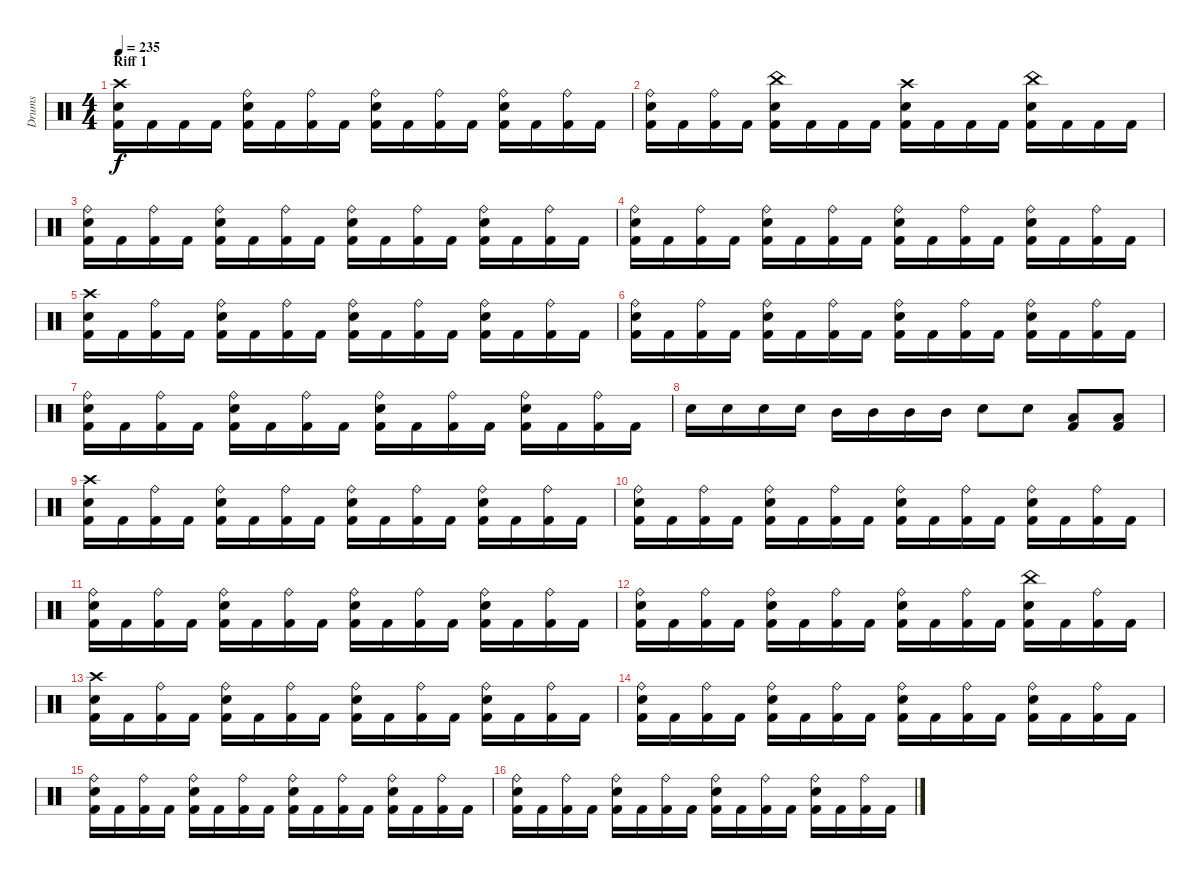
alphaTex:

\track ("Drums" "Drums") {instrument percussion}
\staff {score}
\articulation defaults
\ts (4 4)
\section ("" "Riff 1")
\tempo 235
\clef neutral
\ks c
("Kick (hit) 2" "Snare (hit) 2" "Crash high (hit)").16{dy f} "Kick (hit) 2".16 "Kick (hit) 2".16 "Kick (hit) 2".16 ("Kick (hit) 2" "Snare (hit) 2" "Ride (bell)").16 "Kick (hit) 2".16 ("Kick (hit) 2" "Ride (bell)").16 "Kick (hit) 2".16 ("Kick (hit) 2" "Snare (hit) 2" "Ride (bell)").16 "Kick (hit) 2".16 ("Kick (hit) 2" "Ride (bell)").16 "Kick (hit) 2".16 ("Kick (hit) 2" "Snare (hit) 2" "Ride (bell)").16 "Kick (hit) 2".16 ("Kick (hit) 2" "Ride (bell)").16 "Kick (hit) 2".16 |
("Kick (hit) 2" "Snare (hit) 2" "Ride (bell)").16 "Kick (hit) 2".16 ("Kick (hit) 2" "Ride (bell)").16 "Kick (hit) 2".16 ("Kick (hit) 2" "Snare (hit) 2" "China (hit)").16 "Kick (hit) 2".16 "Kick (hit) 2".16 "Kick (hit) 2".16 ("Kick (hit) 2" "Snare (hit) 2" "Crash high (hit)").16 "Kick (hit) 2".16 "Kick (hit) 2".16 "Kick (hit) 2".16 ("Kick (hit) 2" "Snare (hit) 2" "China (hit)").16 "Kick (hit) 2".16 "Kick (hit) 2".16 "Kick (hit) 2".16 |
("Kick (hit) 2" "Snare (hit) 2" "Ride (bell)").16 "Kick (hit) 2".16 ("Kick (hit) 2" "Ride (bell)").16 "Kick (hit) 2".16 ("Kick (hit) 2" "Snare (hit) 2" "Ride (bell)").16 "Kick (hit) 2".16 ("Kick (hit) 2" "Ride (bell)").16 "Kick (hit) 2".16 ("Kick (hit) 2" "Snare (hit) 2" "Ride (bell)").16 "Kick (hit) 2".16 ("Kick (hit) 2" "Ride (bell)").16 "Kick (hit) 2".16 ("Kick (hit) 2" "Snare (hit) 2" "Ride (bell)").16 "Kick (hit) 2".16 ("Kick (hit) 2" "Ride (bell)").16 "Kick (hit) 2".16 |
("Kick (hit) 2" "Snare (hit) 2" "Ride (bell)").16 "Kick (hit) 2".16 ("Kick (hit) 2" "Ride (bell)").16 "Kick (hit) 2".16 ("Kick (hit) 2" "Snare (hit) 2" "Ride (bell)").16 "Kick (hit) 2".16 ("Kick (hit) 2" "Ride (bell)").16 "Kick (hit) 2".16 ("Kick (hit) 2" "Snare (hit) 2" "Ride (bell)").16 "Kick (hit) 2".16 ("Kick (hit) 2" "Ride (bell)").16 "Kick (hit) 2".16 ("Kick (hit) 2" "Snare (hit) 2" "Ride (bell)").16 "Kick (hit) 2".16 ("Kick (hit) 2" "Ride (bell)").16 "Kick (hit) 2".16 |
("Kick (hit) 2" "Snare (hit) 2" "Crash high (hit)").16 "Kick (hit) 2".16 ("Kick (hit) 2" "Ride (bell)").16 "Kick (hit) 2".16 ("Kick (hit) 2" "Snare (hit) 2" "Ride (bell)").16 "Kick (hit) 2".16 ("Kick (hit) 2" "Ride (bell)").16 "Kick (hit) 2".16 ("Kick (hit) 2" "Snare (hit) 2" "Ride (bell)").16 "Kick (hit) 2".16 ("Kick (hit) 2" "Ride (bell)").16 "Kick (hit) 2".16 ("Kick (hit) 2" "Snare (hit) 2" "Ride (bell)").16 "Kick (hit) 2".16 ("Kick (hit) 2" "Ride (bell)").16 "Kick (hit) 2".16 |
("Kick (hit) 2" "Snare (hit) 2" "Ride (bell)").16 "Kick (hit) 2".16 ("Kick (hit) 2" "Ride (bell)").16 "Kick (hit) 2".16 ("Kick (hit) 2" "Snare (hit) 2" "Ride (bell)").16 "Kick (hit) 2".16 ("Kick (hit) 2" "Ride (bell)").16 "Kick (hit) 2".16 ("Kick (hit) 2" "Snare (hit) 2" "Ride (bell)").16 "Kick (hit) 2".16 ("Kick (hit) 2" "Ride (bell)").16 "Kick (hit) 2".16 ("Kick (hit) 2" "Snare (hit) 2" "Ride (bell)").16 "Kick (hit) 2".16 ("Kick (hit) 2" "Ride (bell)").16 "Kick (hit) 2".16 |
("Kick (hit) 2" "Snare (hit) 2" "Ride (bell)").16 "Kick (hit) 2".16 ("Kick (hit) 2" "Ride (bell)").16 "Kick (hit) 2".16 ("Kick (hit) 2" "Snare (hit) 2" "Ride (bell)").16 "Kick (hit) 2".16 ("Kick (hit) 2" "Ride (bell)").16 "Kick (hit) 2".16 ("Kick (hit) 2" "Snare (hit) 2" "Ride (bell)").16 "Kick (hit) 2".16 ("Kick (hit) 2" "Ride (bell)").16 "Kick (hit) 2".16 ("Kick (hit) 2" "Snare (hit) 2" "Ride (bell)").16 "Kick (hit) 2".16 ("Kick (hit) 2" "Ride (bell)").16 "Kick (hit) 2".16 |
"Snare (hit) 2".16 "Snare (hit) 2".16 "Snare (hit) 2".16 "Snare (hit) 2".16 "Mid Tom (hit)".16 "Mid Tom (hit)".16 "Mid Tom (hit)".16 "Mid Tom (hit)".16 "Snare (hit) 2".8 "Snare (hit) 2".8 ("Kick (hit) 2" "Low Tom (hit)").8 ("Kick (hit) 2" "Low Floor Tom (hit)").8 |
("Kick (hit) 2" "Snare (hit) 2" "Crash high (hit)").16 "Kick (hit) 2".16 ("Kick (hit) 2" "Ride (bell)").16 "Kick (hit) 2".16 ("Kick (hit) 2" "Snare (hit) 2" "Ride (bell)").16 "Kick (hit) 2".16 ("Kick (hit) 2" "Ride (bell)").16 "Kick (hit) 2".16 ("Kick (hit) 2" "Snare (hit) 2" "Ride (bell)").16 "Kick (hit) 2".16 ("Kick (hit) 2" "Ride (bell)").16 "Kick (hit) 2".16 ("Kick (hit) 2" "Snare (hit) 2" "Ride (bell)").16 "Kick (hit) 2".16 ("Kick (hit) 2" "Ride (bell)").16 "Kick (hit) 2".16 |
("Kick (hit) 2" "Snare (hit) 2" "Ride (bell)").16 "Kick (hit) 2".16 ("Kick (hit) 2" "Ride (bell)").16 "Kick (hit) 2".16 ("Kick (hit) 2" "Snare (hit) 2" "Ride (bell)").16 "Kick (hit) 2".16 ("Kick (hit) 2" "Ride (bell)").16 "Kick (hit) 2".16 ("Kick (hit) 2" "Snare (hit) 2" "Ride (bell)").16 "Kick (hit) 2".16 ("Kick (hit) 2" "Ride (bell)").16 "Kick (hit) 2".16 ("Kick (hit) 2" "Snare (hit) 2" "Ride (bell)").16 "Kick (hit) 2".16 ("Kick (hit) 2" "Ride (bell)").16 "Kick (hit) 2".16 |
("Kick (hit) 2" "Snare (hit) 2" "Ride (bell)").16 "Kick (hit) 2".16 ("Kick (hit) 2" "Ride (bell)").16 "Kick (hit) 2".16 ("Kick (hit) 2" "Snare (hit) 2" "Ride (bell)").16 "Kick (hit) 2".16 ("Kick (hit) 2" "Ride (bell)").16 "Kick (hit) 2".16 ("Kick (hit) 2" "Snare (hit) 2" "Ride (bell)").16 "Kick (hit) 2".16 ("Kick (hit) 2" "Ride (bell)").16 "Kick (hit) 2".16 ("Kick (hit) 2" "Snare (hit) 2" "Ride (bell)").16 "Kick (hit) 2".16 ("Kick (hit) 2" "Ride (bell)").16 "Kick (hit) 2".16 |
("Kick (hit) 2" "Snare (hit) 2" "Ride (bell)").16 "Kick (hit) 2".16 ("Kick (hit) 2" "Ride (bell)").16 "Kick (hit) 2".16 ("Kick (hit) 2" "Snare (hit) 2" "Ride (bell)").16 "Kick (hit) 2".16 ("Kick (hit) 2" "Ride (bell)").16 "Kick (hit) 2".16 ("Kick (hit) 2" "Snare (hit) 2" "Ride (bell)").16 "Kick (hit) 2".16 ("Kick (hit) 2" "Ride (bell)").16 "Kick (hit) 2".16 ("Kick (hit) 2" "Snare (hit) 2" "China (hit)").16 "Kick (hit) 2".16 ("Kick (hit) 2" "Ride (bell)").16 "Kick (hit) 2".16 |
("Kick (hit) 2" "Snare (hit) 2" "Crash high (hit)").16 "Kick (hit) 2".16 ("Kick (hit) 2" "Ride (bell)").16 "Kick (hit) 2".16 ("Kick (hit) 2" "Snare (hit) 2" "Ride (bell)").16 "Kick (hit) 2".16 ("Kick (hit) 2" "Ride (bell)").16 "Kick (hit) 2".16 ("Kick (hit) 2" "Snare (hit) 2" "Ride (bell)").16 "Kick (hit) 2".16 ("Kick (hit) 2" "Ride (bell)").16 "Kick (hit) 2".16 ("Kick (hit) 2" "Snare (hit) 2" "Ride (bell)").16 "Kick (hit) 2".16 ("Kick (hit) 2" "Ride (bell)").16 "Kick (hit) 2".16 |
("Kick (hit) 2" "Snare (hit) 2" "Ride (bell)").16 "Kick (hit) 2".16 ("Kick (hit) 2" "Ride (bell)").16 "Kick (hit) 2".16 ("Kick (hit) 2" "Snare (hit) 2" "Ride (bell)").16 "Kick (hit) 2".16 ("Kick (hit) 2" "Ride (bell)").16 "Kick (hit) 2".16 ("Kick (hit) 2" "Snare (hit) 2" "Ride (bell)").16 "Kick (hit) 2".16 ("Kick (hit) 2" "Ride (bell)").16 "Kick (hit) 2".16 ("Kick (hit) 2" "Snare (hit) 2" "Ride (bell)").16 "Kick (hit) 2".16 ("Kick (hit) 2" "Ride (bell)").16 "Kick (hit) 2".16 |
("Kick (hit) 2" "Snare (hit) 2" "Ride (bell)").16 "Kick (hit) 2".16 ("Kick (hit) 2" "Ride (bell)").16 "Kick (hit) 2".16 ("Kick (hit) 2" "Snare (hit) 2" "Ride (bell)").16 "Kick (hit) 2".16 ("Kick (hit) 2" "Ride (bell)").16 "Kick (hit) 2".16 ("Kick (hit) 2" "Snare (hit) 2" "Ride (bell)").16 "Kick (hit) 2".16 ("Kick (hit) 2" "Ride (bell)").16 "Kick (hit) 2".16 ("Kick (hit) 2" "Snare (hit) 2" "Ride (bell)").16 "Kick (hit) 2".16 ("Kick (hit) 2" "Ride (bell)").16 "Kick (hit) 2".16 |
("Kick (hit) 2" "Snare (hit) 2" "Ride (bell)").16 "Kick (hit) 2".16 ("Kick (hit) 2" "Ride (bell)").16 "Kick (hit) 2".16 ("Kick (hit) 2" "Snare (hit) 2" "Ride (bell)").16 "Kick (hit) 2".16 ("Kick (hit) 2" "Ride (bell)").16 "Kick (hit) 2".16 ("Kick (hit) 2" "Snare (hit) 2" "Ride (bell)").16 "Kick (hit) 2".16 ("Kick (hit) 2" "Ride (bell)").16 "Kick (hit) 2".16 ("Kick (hit) 2" "Snare (hit) 2" "Ride (bell)").16 "Kick (hit) 2".16 ("Kick (hit) 2" "Ride (bell)").16 "Kick (hit) 2".16
